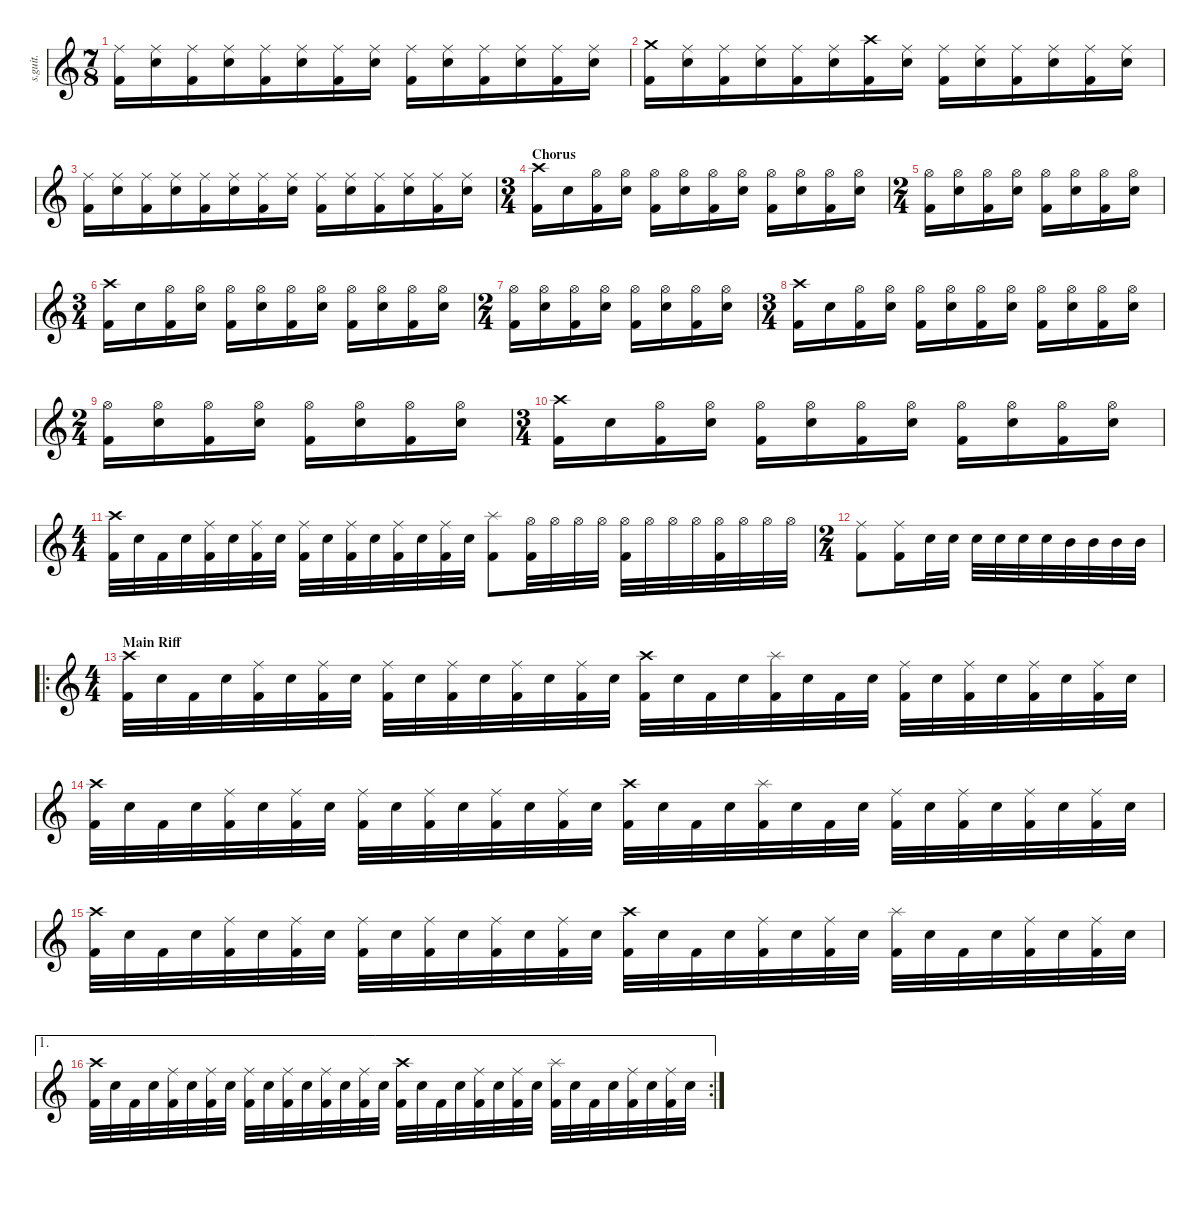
\defaultSystemsLayout 4
\hideDynamics
\bracketExtendMode nobrackets
\track ("Percussion" "s.guit.") {instrument percussion}
\staff {score}
\articulation defaults
\ts (7 8)
\tempo (120 hide)
\clef g2
\ks c
("Ride (middle)" "Kick (hit) 2").16{lyrics (0 "") lyrics (1 "") lyrics (2 "") lyrics (3 "") lyrics (4 "") dy f} ("Ride (middle)" "Snare (hit) 2").16{lyrics (0 "") lyrics (1 "") lyrics (2 "") lyrics (3 "") lyrics (4 "")} ("Ride (middle)" "Kick (hit) 2").16{lyrics (0 "") lyrics (1 "") lyrics (2 "") lyrics (3 "") lyrics (4 "")} ("Snare (hit) 2" "Ride (middle)").16{lyrics (0 "") lyrics (1 "") lyrics (2 "") lyrics (3 "") lyrics (4 "")} ("Ride (middle)" "Kick (hit) 2").16{lyrics (0 "") lyrics (1 "") lyrics (2 "") lyrics (3 "") lyrics (4 "")} ("Ride (middle)" "Snare (hit) 2").16{lyrics (0 "") lyrics (1 "") lyrics (2 "") lyrics (3 "") lyrics (4 "")} ("Ride (middle)" "Kick (hit) 2").16{lyrics (0 "") lyrics (1 "") lyrics (2 "") lyrics (3 "") lyrics (4 "")} ("Ride (middle)" "Snare (hit) 2").16{lyrics (0 "") lyrics (1 "") lyrics (2 "") lyrics (3 "") lyrics (4 "")} ("Ride (middle)" "Kick (hit) 2").16{lyrics (0 "") lyrics (1 "") lyrics (2 "") lyrics (3 "") lyrics (4 "")} ("Ride (middle)" "Snare (hit) 2").16{lyrics (0 "") lyrics (1 "") lyrics (2 "") lyrics (3 "") lyrics (4 "")} ("Ride (middle)" "Kick (hit) 2").16{lyrics (0 "") lyrics (1 "") lyrics (2 "") lyrics (3 "") lyrics (4 "")} ("Ride (middle)" "Snare (hit) 2").16{lyrics (0 "") lyrics (1 "") lyrics (2 "") lyrics (3 "") lyrics (4 "")} ("Ride (middle)" "Kick (hit) 2").16{lyrics (0 "") lyrics (1 "") lyrics (2 "") lyrics (3 "") lyrics (4 "")} ("Ride (middle)" "Snare (hit) 2").16{lyrics (0 "") lyrics (1 "") lyrics (2 "") lyrics (3 "") lyrics (4 "")} |
("Crash medium (hit)" "Kick (hit) 2").16{lyrics (0 "") lyrics (1 "") lyrics (2 "") lyrics (3 "") lyrics (4 "")} ("Ride (middle)" "Snare (hit) 2").16{lyrics (0 "") lyrics (1 "") lyrics (2 "") lyrics (3 "") lyrics (4 "")} ("Ride (middle)" "Kick (hit) 2").16{lyrics (0 "") lyrics (1 "") lyrics (2 "") lyrics (3 "") lyrics (4 "")} ("Snare (hit) 2" "Ride (middle)").16{lyrics (0 "") lyrics (1 "") lyrics (2 "") lyrics (3 "") lyrics (4 "")} ("Ride (middle)" "Kick (hit) 2").16{lyrics (0 "") lyrics (1 "") lyrics (2 "") lyrics (3 "") lyrics (4 "")} ("Ride (middle)" "Snare (hit) 2").16{lyrics (0 "") lyrics (1 "") lyrics (2 "") lyrics (3 "") lyrics (4 "")} ("Crash high (hit)" "Kick (hit) 2").16{lyrics (0 "") lyrics (1 "") lyrics (2 "") lyrics (3 "") lyrics (4 "")} ("Ride (middle)" "Snare (hit) 2").16{lyrics (0 "") lyrics (1 "") lyrics (2 "") lyrics (3 "") lyrics (4 "")} ("Ride (middle)" "Kick (hit) 2").16{lyrics (0 "") lyrics (1 "") lyrics (2 "") lyrics (3 "") lyrics (4 "")} ("Ride (middle)" "Snare (hit) 2").16{lyrics (0 "") lyrics (1 "") lyrics (2 "") lyrics (3 "") lyrics (4 "")} ("Ride (middle)" "Kick (hit) 2").16{lyrics (0 "") lyrics (1 "") lyrics (2 "") lyrics (3 "") lyrics (4 "")} ("Ride (middle)" "Snare (hit) 2").16{lyrics (0 "") lyrics (1 "") lyrics (2 "") lyrics (3 "") lyrics (4 "")} ("Ride (middle)" "Kick (hit) 2").16{lyrics (0 "") lyrics (1 "") lyrics (2 "") lyrics (3 "") lyrics (4 "")} ("Ride (middle)" "Snare (hit) 2").16{lyrics (0 "") lyrics (1 "") lyrics (2 "") lyrics (3 "") lyrics (4 "")} |
("Ride (middle)" "Kick (hit) 2").16{lyrics (0 "") lyrics (1 "") lyrics (2 "") lyrics (3 "") lyrics (4 "")} ("Ride (middle)" "Snare (hit) 2").16{lyrics (0 "") lyrics (1 "") lyrics (2 "") lyrics (3 "") lyrics (4 "")} ("Ride (middle)" "Kick (hit) 2").16{lyrics (0 "") lyrics (1 "") lyrics (2 "") lyrics (3 "") lyrics (4 "")} ("Snare (hit) 2" "Ride (middle)").16{lyrics (0 "") lyrics (1 "") lyrics (2 "") lyrics (3 "") lyrics (4 "")} ("Ride (middle)" "Kick (hit) 2").16{lyrics (0 "") lyrics (1 "") lyrics (2 "") lyrics (3 "") lyrics (4 "")} ("Ride (middle)" "Snare (hit) 2").16{lyrics (0 "") lyrics (1 "") lyrics (2 "") lyrics (3 "") lyrics (4 "")} ("Ride (middle)" "Kick (hit) 2").16{lyrics (0 "") lyrics (1 "") lyrics (2 "") lyrics (3 "") lyrics (4 "")} ("Ride (middle)" "Snare (hit) 2").16{lyrics (0 "") lyrics (1 "") lyrics (2 "") lyrics (3 "") lyrics (4 "")} ("Ride (middle)" "Kick (hit) 2").16{lyrics (0 "") lyrics (1 "") lyrics (2 "") lyrics (3 "") lyrics (4 "")} ("Ride (middle)" "Snare (hit) 2").16{lyrics (0 "") lyrics (1 "") lyrics (2 "") lyrics (3 "") lyrics (4 "")} ("Ride (middle)" "Kick (hit) 2").16{lyrics (0 "") lyrics (1 "") lyrics (2 "") lyrics (3 "") lyrics (4 "")} ("Ride (middle)" "Snare (hit) 2").16{lyrics (0 "") lyrics (1 "") lyrics (2 "") lyrics (3 "") lyrics (4 "")} ("Ride (middle)" "Kick (hit) 2").16{lyrics (0 "") lyrics (1 "") lyrics (2 "") lyrics (3 "") lyrics (4 "")} ("Ride (middle)" "Snare (hit) 2").16{lyrics (0 "") lyrics (1 "") lyrics (2 "") lyrics (3 "") lyrics (4 "")} |
\ts (3 4)
\beaming (8 2 2 2 2)
\section ("" "Chorus")
("Kick (hit) 2" "Crash high (hit)").16{lyrics (0 "") lyrics (1 "") lyrics (2 "") lyrics (3 "") lyrics (4 "")} "Snare (hit) 2".16{lyrics (0 "") lyrics (1 "") lyrics (2 "") lyrics (3 "") lyrics (4 "")} ("Hi-Hat (open)" "Kick (hit) 2").16{lyrics (0 "") lyrics (1 "") lyrics (2 "") lyrics (3 "") lyrics (4 "")} ("Hi-Hat (open)" "Snare (hit) 2").16{lyrics (0 "") lyrics (1 "") lyrics (2 "") lyrics (3 "") lyrics (4 "")} ("Hi-Hat (open)" "Kick (hit) 2").16{lyrics (0 "") lyrics (1 "") lyrics (2 "") lyrics (3 "") lyrics (4 "")} ("Hi-Hat (open)" "Snare (hit) 2").16{lyrics (0 "") lyrics (1 "") lyrics (2 "") lyrics (3 "") lyrics (4 "")} ("Hi-Hat (open)" "Kick (hit) 2").16{lyrics (0 "") lyrics (1 "") lyrics (2 "") lyrics (3 "") lyrics (4 "")} ("Hi-Hat (open)" "Snare (hit) 2").16{lyrics (0 "") lyrics (1 "") lyrics (2 "") lyrics (3 "") lyrics (4 "")} ("Hi-Hat (open)" "Kick (hit) 2").16{lyrics (0 "") lyrics (1 "") lyrics (2 "") lyrics (3 "") lyrics (4 "")} ("Hi-Hat (open)" "Snare (hit) 2").16{lyrics (0 "") lyrics (1 "") lyrics (2 "") lyrics (3 "") lyrics (4 "")} ("Hi-Hat (open)" "Kick (hit) 2").16{lyrics (0 "") lyrics (1 "") lyrics (2 "") lyrics (3 "") lyrics (4 "")} ("Hi-Hat (open)" "Snare (hit) 2").16{lyrics (0 "") lyrics (1 "") lyrics (2 "") lyrics (3 "") lyrics (4 "")} |
\ts (2 4)
\beaming (8 2 2 2 2)
("Hi-Hat (open)" "Kick (hit) 2").16{lyrics (0 "") lyrics (1 "") lyrics (2 "") lyrics (3 "") lyrics (4 "")} ("Hi-Hat (open)" "Snare (hit) 2").16{lyrics (0 "") lyrics (1 "") lyrics (2 "") lyrics (3 "") lyrics (4 "")} ("Hi-Hat (open)" "Kick (hit) 2").16{lyrics (0 "") lyrics (1 "") lyrics (2 "") lyrics (3 "") lyrics (4 "")} ("Hi-Hat (open)" "Snare (hit) 2").16{lyrics (0 "") lyrics (1 "") lyrics (2 "") lyrics (3 "") lyrics (4 "")} ("Hi-Hat (open)" "Kick (hit) 2").16{lyrics (0 "") lyrics (1 "") lyrics (2 "") lyrics (3 "") lyrics (4 "")} ("Hi-Hat (open)" "Snare (hit) 2").16{lyrics (0 "") lyrics (1 "") lyrics (2 "") lyrics (3 "") lyrics (4 "")} ("Hi-Hat (open)" "Kick (hit) 2").16{lyrics (0 "") lyrics (1 "") lyrics (2 "") lyrics (3 "") lyrics (4 "")} ("Hi-Hat (open)" "Snare (hit) 2").16{lyrics (0 "") lyrics (1 "") lyrics (2 "") lyrics (3 "") lyrics (4 "")} |
\ts (3 4)
\beaming (8 2 2 2 2)
("Kick (hit) 2" "Crash high (hit)").16{lyrics (0 "") lyrics (1 "") lyrics (2 "") lyrics (3 "") lyrics (4 "")} "Snare (hit) 2".16{lyrics (0 "") lyrics (1 "") lyrics (2 "") lyrics (3 "") lyrics (4 "")} ("Hi-Hat (open)" "Kick (hit) 2").16{lyrics (0 "") lyrics (1 "") lyrics (2 "") lyrics (3 "") lyrics (4 "")} ("Hi-Hat (open)" "Snare (hit) 2").16{lyrics (0 "") lyrics (1 "") lyrics (2 "") lyrics (3 "") lyrics (4 "")} ("Hi-Hat (open)" "Kick (hit) 2").16{lyrics (0 "") lyrics (1 "") lyrics (2 "") lyrics (3 "") lyrics (4 "")} ("Hi-Hat (open)" "Snare (hit) 2").16{lyrics (0 "") lyrics (1 "") lyrics (2 "") lyrics (3 "") lyrics (4 "")} ("Hi-Hat (open)" "Kick (hit) 2").16{lyrics (0 "") lyrics (1 "") lyrics (2 "") lyrics (3 "") lyrics (4 "")} ("Hi-Hat (open)" "Snare (hit) 2").16{lyrics (0 "") lyrics (1 "") lyrics (2 "") lyrics (3 "") lyrics (4 "")} ("Hi-Hat (open)" "Kick (hit) 2").16{lyrics (0 "") lyrics (1 "") lyrics (2 "") lyrics (3 "") lyrics (4 "")} ("Hi-Hat (open)" "Snare (hit) 2").16{lyrics (0 "") lyrics (1 "") lyrics (2 "") lyrics (3 "") lyrics (4 "")} ("Hi-Hat (open)" "Kick (hit) 2").16{lyrics (0 "") lyrics (1 "") lyrics (2 "") lyrics (3 "") lyrics (4 "")} ("Hi-Hat (open)" "Snare (hit) 2").16{lyrics (0 "") lyrics (1 "") lyrics (2 "") lyrics (3 "") lyrics (4 "")} |
\ts (2 4)
\beaming (8 2 2 2 2)
("Hi-Hat (open)" "Kick (hit) 2").16{lyrics (0 "") lyrics (1 "") lyrics (2 "") lyrics (3 "") lyrics (4 "")} ("Hi-Hat (open)" "Snare (hit) 2").16{lyrics (0 "") lyrics (1 "") lyrics (2 "") lyrics (3 "") lyrics (4 "")} ("Hi-Hat (open)" "Kick (hit) 2").16{lyrics (0 "") lyrics (1 "") lyrics (2 "") lyrics (3 "") lyrics (4 "")} ("Hi-Hat (open)" "Snare (hit) 2").16{lyrics (0 "") lyrics (1 "") lyrics (2 "") lyrics (3 "") lyrics (4 "")} ("Hi-Hat (open)" "Kick (hit) 2").16{lyrics (0 "") lyrics (1 "") lyrics (2 "") lyrics (3 "") lyrics (4 "")} ("Hi-Hat (open)" "Snare (hit) 2").16{lyrics (0 "") lyrics (1 "") lyrics (2 "") lyrics (3 "") lyrics (4 "")} ("Hi-Hat (open)" "Kick (hit) 2").16{lyrics (0 "") lyrics (1 "") lyrics (2 "") lyrics (3 "") lyrics (4 "")} ("Hi-Hat (open)" "Snare (hit) 2").16{lyrics (0 "") lyrics (1 "") lyrics (2 "") lyrics (3 "") lyrics (4 "")} |
\ts (3 4)
\beaming (8 2 2 2 2)
("Kick (hit) 2" "Crash high (hit)").16{lyrics (0 "") lyrics (1 "") lyrics (2 "") lyrics (3 "") lyrics (4 "")} "Snare (hit) 2".16{lyrics (0 "") lyrics (1 "") lyrics (2 "") lyrics (3 "") lyrics (4 "")} ("Hi-Hat (open)" "Kick (hit) 2").16{lyrics (0 "") lyrics (1 "") lyrics (2 "") lyrics (3 "") lyrics (4 "")} ("Hi-Hat (open)" "Snare (hit) 2").16{lyrics (0 "") lyrics (1 "") lyrics (2 "") lyrics (3 "") lyrics (4 "")} ("Hi-Hat (open)" "Kick (hit) 2").16{lyrics (0 "") lyrics (1 "") lyrics (2 "") lyrics (3 "") lyrics (4 "")} ("Hi-Hat (open)" "Snare (hit) 2").16{lyrics (0 "") lyrics (1 "") lyrics (2 "") lyrics (3 "") lyrics (4 "")} ("Hi-Hat (open)" "Kick (hit) 2").16{lyrics (0 "") lyrics (1 "") lyrics (2 "") lyrics (3 "") lyrics (4 "")} ("Hi-Hat (open)" "Snare (hit) 2").16{lyrics (0 "") lyrics (1 "") lyrics (2 "") lyrics (3 "") lyrics (4 "")} ("Hi-Hat (open)" "Kick (hit) 2").16{lyrics (0 "") lyrics (1 "") lyrics (2 "") lyrics (3 "") lyrics (4 "")} ("Hi-Hat (open)" "Snare (hit) 2").16{lyrics (0 "") lyrics (1 "") lyrics (2 "") lyrics (3 "") lyrics (4 "")} ("Hi-Hat (open)" "Kick (hit) 2").16{lyrics (0 "") lyrics (1 "") lyrics (2 "") lyrics (3 "") lyrics (4 "")} ("Hi-Hat (open)" "Snare (hit) 2").16{lyrics (0 "") lyrics (1 "") lyrics (2 "") lyrics (3 "") lyrics (4 "")} |
\ts (2 4)
\beaming (8 2 2 2 2)
("Hi-Hat (open)" "Kick (hit) 2").16{lyrics (0 "") lyrics (1 "") lyrics (2 "") lyrics (3 "") lyrics (4 "")} ("Hi-Hat (open)" "Snare (hit) 2").16{lyrics (0 "") lyrics (1 "") lyrics (2 "") lyrics (3 "") lyrics (4 "")} ("Hi-Hat (open)" "Kick (hit) 2").16{lyrics (0 "") lyrics (1 "") lyrics (2 "") lyrics (3 "") lyrics (4 "")} ("Hi-Hat (open)" "Snare (hit) 2").16{lyrics (0 "") lyrics (1 "") lyrics (2 "") lyrics (3 "") lyrics (4 "")} ("Hi-Hat (open)" "Kick (hit) 2").16{lyrics (0 "") lyrics (1 "") lyrics (2 "") lyrics (3 "") lyrics (4 "")} ("Hi-Hat (open)" "Snare (hit) 2").16{lyrics (0 "") lyrics (1 "") lyrics (2 "") lyrics (3 "") lyrics (4 "")} ("Hi-Hat (open)" "Kick (hit) 2").16{lyrics (0 "") lyrics (1 "") lyrics (2 "") lyrics (3 "") lyrics (4 "")} ("Hi-Hat (open)" "Snare (hit) 2").16{lyrics (0 "") lyrics (1 "") lyrics (2 "") lyrics (3 "") lyrics (4 "")} |
\ts (3 4)
\beaming (8 2 2 2 2)
("Kick (hit) 2" "Crash high (hit)").16{lyrics (0 "") lyrics (1 "") lyrics (2 "") lyrics (3 "") lyrics (4 "")} "Snare (hit) 2".16{lyrics (0 "") lyrics (1 "") lyrics (2 "") lyrics (3 "") lyrics (4 "")} ("Hi-Hat (open)" "Kick (hit) 2").16{lyrics (0 "") lyrics (1 "") lyrics (2 "") lyrics (3 "") lyrics (4 "")} ("Hi-Hat (open)" "Snare (hit) 2").16{lyrics (0 "") lyrics (1 "") lyrics (2 "") lyrics (3 "") lyrics (4 "")} ("Hi-Hat (open)" "Kick (hit) 2").16{lyrics (0 "") lyrics (1 "") lyrics (2 "") lyrics (3 "") lyrics (4 "")} ("Hi-Hat (open)" "Snare (hit) 2").16{lyrics (0 "") lyrics (1 "") lyrics (2 "") lyrics (3 "") lyrics (4 "")} ("Hi-Hat (open)" "Kick (hit) 2").16{lyrics (0 "") lyrics (1 "") lyrics (2 "") lyrics (3 "") lyrics (4 "")} ("Hi-Hat (open)" "Snare (hit) 2").16{lyrics (0 "") lyrics (1 "") lyrics (2 "") lyrics (3 "") lyrics (4 "")} ("Hi-Hat (open)" "Kick (hit) 2").16{lyrics (0 "") lyrics (1 "") lyrics (2 "") lyrics (3 "") lyrics (4 "")} ("Hi-Hat (open)" "Snare (hit) 2").16{lyrics (0 "") lyrics (1 "") lyrics (2 "") lyrics (3 "") lyrics (4 "")} ("Hi-Hat (open)" "Kick (hit) 2").16{lyrics (0 "") lyrics (1 "") lyrics (2 "") lyrics (3 "") lyrics (4 "")} ("Hi-Hat (open)" "Snare (hit) 2").16{lyrics (0 "") lyrics (1 "") lyrics (2 "") lyrics (3 "") lyrics (4 "")} |
\ts (4 4)
\beaming (8 2 2 2 2)
("Kick (hit) 2" "Crash high (hit)").32{lyrics (0 "") lyrics (1 "") lyrics (2 "") lyrics (3 "") lyrics (4 "")} "Snare (hit) 2".32{lyrics (0 "") lyrics (1 "") lyrics (2 "") lyrics (3 "") lyrics (4 "")} "Kick (hit) 2".32{lyrics (0 "") lyrics (1 "") lyrics (2 "") lyrics (3 "") lyrics (4 "")} "Snare (hit) 2".32{lyrics (0 "") lyrics (1 "") lyrics (2 "") lyrics (3 "") lyrics (4 "")} ("Ride (middle)" "Kick (hit) 2").32{lyrics (0 "") lyrics (1 "") lyrics (2 "") lyrics (3 "") lyrics (4 "")} "Snare (hit) 2".32{lyrics (0 "") lyrics (1 "") lyrics (2 "") lyrics (3 "") lyrics (4 "")} ("Ride (middle)" "Kick (hit) 2").32{lyrics (0 "") lyrics (1 "") lyrics (2 "") lyrics (3 "") lyrics (4 "")} "Snare (hit) 2".32{lyrics (0 "") lyrics (1 "") lyrics (2 "") lyrics (3 "") lyrics (4 "")} ("Ride (middle)" "Kick (hit) 2").32{lyrics (0 "") lyrics (1 "") lyrics (2 "") lyrics (3 "") lyrics (4 "")} "Snare (hit) 2".32{lyrics (0 "") lyrics (1 "") lyrics (2 "") lyrics (3 "") lyrics (4 "")} ("Ride (middle)" "Kick (hit) 2").32{lyrics (0 "") lyrics (1 "") lyrics (2 "") lyrics (3 "") lyrics (4 "")} "Snare (hit) 2".32{lyrics (0 "") lyrics (1 "") lyrics (2 "") lyrics (3 "") lyrics (4 "")} ("Ride (middle)" "Kick (hit) 2").32{lyrics (0 "") lyrics (1 "") lyrics (2 "") lyrics (3 "") lyrics (4 "")} "Snare (hit) 2".32{lyrics (0 "") lyrics (1 "") lyrics (2 "") lyrics (3 "") lyrics (4 "")} ("Ride (middle)" "Kick (hit) 2").32{lyrics (0 "") lyrics (1 "") lyrics (2 "") lyrics (3 "") lyrics (4 "")} "Snare (hit) 2".32{lyrics (0 "") lyrics (1 "") lyrics (2 "") lyrics (3 "") lyrics (4 "")} ("Splash (hit)" "Kick (hit) 2").8{lyrics (0 "") lyrics (1 "") lyrics (2 "") lyrics (3 "") lyrics (4 "")} ("Hi-Hat (open)" "Kick (hit) 2").32{lyrics (0 "") lyrics (1 "") lyrics (2 "") lyrics (3 "") lyrics (4 "")} "Hi-Hat (open)".32{lyrics (0 "") lyrics (1 "") lyrics (2 "") lyrics (3 "") lyrics (4 "")} "Hi-Hat (open)".32{lyrics (0 "") lyrics (1 "") lyrics (2 "") lyrics (3 "") lyrics (4 "")} "Hi-Hat (open)".32{lyrics (0 "") lyrics (1 "") lyrics (2 "") lyrics (3 "") lyrics (4 "")} ("Hi-Hat (open)" "Kick (hit) 2").32{lyrics (0 "") lyrics (1 "") lyrics (2 "") lyrics (3 "") lyrics (4 "")} "Hi-Hat (open)".32{lyrics (0 "") lyrics (1 "") lyrics (2 "") lyrics (3 "") lyrics (4 "")} "Hi-Hat (open)".32{lyrics (0 "") lyrics (1 "") lyrics (2 "") lyrics (3 "") lyrics (4 "")} "Hi-Hat (open)".32{lyrics (0 "") lyrics (1 "") lyrics (2 "") lyrics (3 "") lyrics (4 "")} ("Hi-Hat (open)" "Kick (hit) 2").32{lyrics (0 "") lyrics (1 "") lyrics (2 "") lyrics (3 "") lyrics (4 "")} "Hi-Hat (open)".32{lyrics (0 "") lyrics (1 "") lyrics (2 "") lyrics (3 "") lyrics (4 "")} "Hi-Hat (open)".32{lyrics (0 "") lyrics (1 "") lyrics (2 "") lyrics (3 "") lyrics (4 "")} "Hi-Hat (open)".32{lyrics (0 "") lyrics (1 "") lyrics (2 "") lyrics (3 "") lyrics (4 "")} |
\ts (2 4)
\beaming (8 2 2 2 2)
("Ride (middle)" "Kick (hit) 2").8{lyrics (0 "") lyrics (1 "") lyrics (2 "") lyrics (3 "") lyrics (4 "")} ("Ride (middle)" "Kick (hit) 2").16{lyrics (0 "") lyrics (1 "") lyrics (2 "") lyrics (3 "") lyrics (4 "")} "Snare (hit) 2".32{lyrics (0 "") lyrics (1 "") lyrics (2 "") lyrics (3 "") lyrics (4 "")} "Snare (hit) 2".32{lyrics (0 "") lyrics (1 "") lyrics (2 "") lyrics (3 "") lyrics (4 "")} "Snare (hit) 2".32{lyrics (0 "") lyrics (1 "") lyrics (2 "") lyrics (3 "") lyrics (4 "")} "Snare (hit) 2".32{lyrics (0 "") lyrics (1 "") lyrics (2 "") lyrics (3 "") lyrics (4 "")} "Snare (hit) 2".32{lyrics (0 "") lyrics (1 "") lyrics (2 "") lyrics (3 "") lyrics (4 "")} "Snare (hit) 2".32{lyrics (0 "") lyrics (1 "") lyrics (2 "") lyrics (3 "") lyrics (4 "")} "Mid Tom (hit)".32{lyrics (0 "") lyrics (1 "") lyrics (2 "") lyrics (3 "") lyrics (4 "")} "Mid Tom (hit)".32{lyrics (0 "") lyrics (1 "") lyrics (2 "") lyrics (3 "") lyrics (4 "")} "Mid Tom (hit)".32{lyrics (0 "") lyrics (1 "") lyrics (2 "") lyrics (3 "") lyrics (4 "")} "Mid Tom (hit)".32{lyrics (0 "") lyrics (1 "") lyrics (2 "") lyrics (3 "") lyrics (4 "")} |
\ro
\ts (4 4)
\beaming (8 2 2 2 2)
\section ("" "Main Riff")
("Kick (hit) 2" "Crash high (hit)").32{lyrics (0 "") lyrics (1 "") lyrics (2 "") lyrics (3 "") lyrics (4 "")} "Snare (hit) 2".32{lyrics (0 "") lyrics (1 "") lyrics (2 "") lyrics (3 "") lyrics (4 "")} "Kick (hit) 2".32{lyrics (0 "") lyrics (1 "") lyrics (2 "") lyrics (3 "") lyrics (4 "")} "Snare (hit) 2".32{lyrics (0 "") lyrics (1 "") lyrics (2 "") lyrics (3 "") lyrics (4 "")} ("Ride (middle)" "Kick (hit) 2").32{lyrics (0 "") lyrics (1 "") lyrics (2 "") lyrics (3 "") lyrics (4 "")} "Snare (hit) 2".32{lyrics (0 "") lyrics (1 "") lyrics (2 "") lyrics (3 "") lyrics (4 "")} ("Ride (middle)" "Kick (hit) 2").32{lyrics (0 "") lyrics (1 "") lyrics (2 "") lyrics (3 "") lyrics (4 "")} "Snare (hit) 2".32{lyrics (0 "") lyrics (1 "") lyrics (2 "") lyrics (3 "") lyrics (4 "")} ("Ride (middle)" "Kick (hit) 2").32{lyrics (0 "") lyrics (1 "") lyrics (2 "") lyrics (3 "") lyrics (4 "")} "Snare (hit) 2".32{lyrics (0 "") lyrics (1 "") lyrics (2 "") lyrics (3 "") lyrics (4 "")} ("Ride (middle)" "Kick (hit) 2").32{lyrics (0 "") lyrics (1 "") lyrics (2 "") lyrics (3 "") lyrics (4 "")} "Snare (hit) 2".32{lyrics (0 "") lyrics (1 "") lyrics (2 "") lyrics (3 "") lyrics (4 "")} ("Ride (middle)" "Kick (hit) 2").32{lyrics (0 "") lyrics (1 "") lyrics (2 "") lyrics (3 "") lyrics (4 "")} "Snare (hit) 2".32{lyrics (0 "") lyrics (1 "") lyrics (2 "") lyrics (3 "") lyrics (4 "")} ("Ride (middle)" "Kick (hit) 2").32{lyrics (0 "") lyrics (1 "") lyrics (2 "") lyrics (3 "") lyrics (4 "")} "Snare (hit) 2".32{lyrics (0 "") lyrics (1 "") lyrics (2 "") lyrics (3 "") lyrics (4 "")} ("Kick (hit) 2" "Crash high (hit)").32{lyrics (0 "") lyrics (1 "") lyrics (2 "") lyrics (3 "") lyrics (4 "")} "Snare (hit) 2".32{lyrics (0 "") lyrics (1 "") lyrics (2 "") lyrics (3 "") lyrics (4 "")} "Kick (hit) 2".32{lyrics (0 "") lyrics (1 "") lyrics (2 "") lyrics (3 "") lyrics (4 "")} "Snare (hit) 2".32{lyrics (0 "") lyrics (1 "") lyrics (2 "") lyrics (3 "") lyrics (4 "")} ("Kick (hit) 2" "Splash (hit)").32{lyrics (0 "") lyrics (1 "") lyrics (2 "") lyrics (3 "") lyrics (4 "")} "Snare (hit) 2".32{lyrics (0 "") lyrics (1 "") lyrics (2 "") lyrics (3 "") lyrics (4 "")} "Kick (hit) 2".32{lyrics (0 "") lyrics (1 "") lyrics (2 "") lyrics (3 "") lyrics (4 "")} "Snare (hit) 2".32{lyrics (0 "") lyrics (1 "") lyrics (2 "") lyrics (3 "") lyrics (4 "")} ("Ride (middle)" "Kick (hit) 2").32{lyrics (0 "") lyrics (1 "") lyrics (2 "") lyrics (3 "") lyrics (4 "")} "Snare (hit) 2".32{lyrics (0 "") lyrics (1 "") lyrics (2 "") lyrics (3 "") lyrics (4 "")} ("Ride (middle)" "Kick (hit) 2").32{lyrics (0 "") lyrics (1 "") lyrics (2 "") lyrics (3 "") lyrics (4 "")} "Snare (hit) 2".32{lyrics (0 "") lyrics (1 "") lyrics (2 "") lyrics (3 "") lyrics (4 "")} ("Ride (middle)" "Kick (hit) 2").32{lyrics (0 "") lyrics (1 "") lyrics (2 "") lyrics (3 "") lyrics (4 "")} "Snare (hit) 2".32{lyrics (0 "") lyrics (1 "") lyrics (2 "") lyrics (3 "") lyrics (4 "")} ("Ride (middle)" "Kick (hit) 2").32{lyrics (0 "") lyrics (1 "") lyrics (2 "") lyrics (3 "") lyrics (4 "")} "Snare (hit) 2".32{lyrics (0 "") lyrics (1 "") lyrics (2 "") lyrics (3 "") lyrics (4 "")} |
("Kick (hit) 2" "Crash high (hit)").32{lyrics (0 "") lyrics (1 "") lyrics (2 "") lyrics (3 "") lyrics (4 "")} "Snare (hit) 2".32{lyrics (0 "") lyrics (1 "") lyrics (2 "") lyrics (3 "") lyrics (4 "")} "Kick (hit) 2".32{lyrics (0 "") lyrics (1 "") lyrics (2 "") lyrics (3 "") lyrics (4 "")} "Snare (hit) 2".32{lyrics (0 "") lyrics (1 "") lyrics (2 "") lyrics (3 "") lyrics (4 "")} ("Ride (middle)" "Kick (hit) 2").32{lyrics (0 "") lyrics (1 "") lyrics (2 "") lyrics (3 "") lyrics (4 "")} "Snare (hit) 2".32{lyrics (0 "") lyrics (1 "") lyrics (2 "") lyrics (3 "") lyrics (4 "")} ("Ride (middle)" "Kick (hit) 2").32{lyrics (0 "") lyrics (1 "") lyrics (2 "") lyrics (3 "") lyrics (4 "")} "Snare (hit) 2".32{lyrics (0 "") lyrics (1 "") lyrics (2 "") lyrics (3 "") lyrics (4 "")} ("Ride (middle)" "Kick (hit) 2").32{lyrics (0 "") lyrics (1 "") lyrics (2 "") lyrics (3 "") lyrics (4 "")} "Snare (hit) 2".32{lyrics (0 "") lyrics (1 "") lyrics (2 "") lyrics (3 "") lyrics (4 "")} ("Ride (middle)" "Kick (hit) 2").32{lyrics (0 "") lyrics (1 "") lyrics (2 "") lyrics (3 "") lyrics (4 "")} "Snare (hit) 2".32{lyrics (0 "") lyrics (1 "") lyrics (2 "") lyrics (3 "") lyrics (4 "")} ("Ride (middle)" "Kick (hit) 2").32{lyrics (0 "") lyrics (1 "") lyrics (2 "") lyrics (3 "") lyrics (4 "")} "Snare (hit) 2".32{lyrics (0 "") lyrics (1 "") lyrics (2 "") lyrics (3 "") lyrics (4 "")} ("Ride (middle)" "Kick (hit) 2").32{lyrics (0 "") lyrics (1 "") lyrics (2 "") lyrics (3 "") lyrics (4 "")} "Snare (hit) 2".32{lyrics (0 "") lyrics (1 "") lyrics (2 "") lyrics (3 "") lyrics (4 "")} ("Kick (hit) 2" "Crash high (hit)").32{lyrics (0 "") lyrics (1 "") lyrics (2 "") lyrics (3 "") lyrics (4 "")} "Snare (hit) 2".32{lyrics (0 "") lyrics (1 "") lyrics (2 "") lyrics (3 "") lyrics (4 "")} "Kick (hit) 2".32{lyrics (0 "") lyrics (1 "") lyrics (2 "") lyrics (3 "") lyrics (4 "")} "Snare (hit) 2".32{lyrics (0 "") lyrics (1 "") lyrics (2 "") lyrics (3 "") lyrics (4 "")} ("Kick (hit) 2" "Splash (hit)").32{lyrics (0 "") lyrics (1 "") lyrics (2 "") lyrics (3 "") lyrics (4 "")} "Snare (hit) 2".32{lyrics (0 "") lyrics (1 "") lyrics (2 "") lyrics (3 "") lyrics (4 "")} "Kick (hit) 2".32{lyrics (0 "") lyrics (1 "") lyrics (2 "") lyrics (3 "") lyrics (4 "")} "Snare (hit) 2".32{lyrics (0 "") lyrics (1 "") lyrics (2 "") lyrics (3 "") lyrics (4 "")} ("Ride (middle)" "Kick (hit) 2").32{lyrics (0 "") lyrics (1 "") lyrics (2 "") lyrics (3 "") lyrics (4 "")} "Snare (hit) 2".32{lyrics (0 "") lyrics (1 "") lyrics (2 "") lyrics (3 "") lyrics (4 "")} ("Ride (middle)" "Kick (hit) 2").32{lyrics (0 "") lyrics (1 "") lyrics (2 "") lyrics (3 "") lyrics (4 "")} "Snare (hit) 2".32{lyrics (0 "") lyrics (1 "") lyrics (2 "") lyrics (3 "") lyrics (4 "")} ("Ride (middle)" "Kick (hit) 2").32{lyrics (0 "") lyrics (1 "") lyrics (2 "") lyrics (3 "") lyrics (4 "")} "Snare (hit) 2".32{lyrics (0 "") lyrics (1 "") lyrics (2 "") lyrics (3 "") lyrics (4 "")} ("Ride (middle)" "Kick (hit) 2").32{lyrics (0 "") lyrics (1 "") lyrics (2 "") lyrics (3 "") lyrics (4 "")} "Snare (hit) 2".32{lyrics (0 "") lyrics (1 "") lyrics (2 "") lyrics (3 "") lyrics (4 "")} |
("Kick (hit) 2" "Crash high (hit)").32{lyrics (0 "") lyrics (1 "") lyrics (2 "") lyrics (3 "") lyrics (4 "")} "Snare (hit) 2".32{lyrics (0 "") lyrics (1 "") lyrics (2 "") lyrics (3 "") lyrics (4 "")} "Kick (hit) 2".32{lyrics (0 "") lyrics (1 "") lyrics (2 "") lyrics (3 "") lyrics (4 "")} "Snare (hit) 2".32{lyrics (0 "") lyrics (1 "") lyrics (2 "") lyrics (3 "") lyrics (4 "")} ("Ride (middle)" "Kick (hit) 2").32{lyrics (0 "") lyrics (1 "") lyrics (2 "") lyrics (3 "") lyrics (4 "")} "Snare (hit) 2".32{lyrics (0 "") lyrics (1 "") lyrics (2 "") lyrics (3 "") lyrics (4 "")} ("Ride (middle)" "Kick (hit) 2").32{lyrics (0 "") lyrics (1 "") lyrics (2 "") lyrics (3 "") lyrics (4 "")} "Snare (hit) 2".32{lyrics (0 "") lyrics (1 "") lyrics (2 "") lyrics (3 "") lyrics (4 "")} ("Ride (middle)" "Kick (hit) 2").32{lyrics (0 "") lyrics (1 "") lyrics (2 "") lyrics (3 "") lyrics (4 "")} "Snare (hit) 2".32{lyrics (0 "") lyrics (1 "") lyrics (2 "") lyrics (3 "") lyrics (4 "")} ("Ride (middle)" "Kick (hit) 2").32{lyrics (0 "") lyrics (1 "") lyrics (2 "") lyrics (3 "") lyrics (4 "")} "Snare (hit) 2".32{lyrics (0 "") lyrics (1 "") lyrics (2 "") lyrics (3 "") lyrics (4 "")} ("Ride (middle)" "Kick (hit) 2").32{lyrics (0 "") lyrics (1 "") lyrics (2 "") lyrics (3 "") lyrics (4 "")} "Snare (hit) 2".32{lyrics (0 "") lyrics (1 "") lyrics (2 "") lyrics (3 "") lyrics (4 "")} ("Ride (middle)" "Kick (hit) 2").32{lyrics (0 "") lyrics (1 "") lyrics (2 "") lyrics (3 "") lyrics (4 "")} "Snare (hit) 2".32{lyrics (0 "") lyrics (1 "") lyrics (2 "") lyrics (3 "") lyrics (4 "")} ("Kick (hit) 2" "Crash high (hit)").32{lyrics (0 "") lyrics (1 "") lyrics (2 "") lyrics (3 "") lyrics (4 "")} "Snare (hit) 2".32{lyrics (0 "") lyrics (1 "") lyrics (2 "") lyrics (3 "") lyrics (4 "")} "Kick (hit) 2".32{lyrics (0 "") lyrics (1 "") lyrics (2 "") lyrics (3 "") lyrics (4 "")} "Snare (hit) 2".32{lyrics (0 "") lyrics (1 "") lyrics (2 "") lyrics (3 "") lyrics (4 "")} ("Ride (middle)" "Kick (hit) 2").32{lyrics (0 "") lyrics (1 "") lyrics (2 "") lyrics (3 "") lyrics (4 "")} "Snare (hit) 2".32{lyrics (0 "") lyrics (1 "") lyrics (2 "") lyrics (3 "") lyrics (4 "")} ("Ride (middle)" "Kick (hit) 2").32{lyrics (0 "") lyrics (1 "") lyrics (2 "") lyrics (3 "") lyrics (4 "")} "Snare (hit) 2".32{lyrics (0 "") lyrics (1 "") lyrics (2 "") lyrics (3 "") lyrics (4 "")} ("Splash (hit)" "Kick (hit) 2").32{lyrics (0 "") lyrics (1 "") lyrics (2 "") lyrics (3 "") lyrics (4 "")} "Snare (hit) 2".32{lyrics (0 "") lyrics (1 "") lyrics (2 "") lyrics (3 "") lyrics (4 "")} "Kick (hit) 2".32{lyrics (0 "") lyrics (1 "") lyrics (2 "") lyrics (3 "") lyrics (4 "")} "Snare (hit) 2".32{lyrics (0 "") lyrics (1 "") lyrics (2 "") lyrics (3 "") lyrics (4 "")} ("Ride (middle)" "Kick (hit) 2").32{lyrics (0 "") lyrics (1 "") lyrics (2 "") lyrics (3 "") lyrics (4 "")} "Snare (hit) 2".32{lyrics (0 "") lyrics (1 "") lyrics (2 "") lyrics (3 "") lyrics (4 "")} ("Ride (middle)" "Kick (hit) 2").32{lyrics (0 "") lyrics (1 "") lyrics (2 "") lyrics (3 "") lyrics (4 "")} "Snare (hit) 2".32{lyrics (0 "") lyrics (1 "") lyrics (2 "") lyrics (3 "") lyrics (4 "")} |
\ae 1
\rc 2
("Kick (hit) 2" "Crash high (hit)").32{lyrics (0 "") lyrics (1 "") lyrics (2 "") lyrics (3 "") lyrics (4 "")} "Snare (hit) 2".32{lyrics (0 "") lyrics (1 "") lyrics (2 "") lyrics (3 "") lyrics (4 "")} "Kick (hit) 2".32{lyrics (0 "") lyrics (1 "") lyrics (2 "") lyrics (3 "") lyrics (4 "")} "Snare (hit) 2".32{lyrics (0 "") lyrics (1 "") lyrics (2 "") lyrics (3 "") lyrics (4 "")} ("Ride (middle)" "Kick (hit) 2").32{lyrics (0 "") lyrics (1 "") lyrics (2 "") lyrics (3 "") lyrics (4 "")} "Snare (hit) 2".32{lyrics (0 "") lyrics (1 "") lyrics (2 "") lyrics (3 "") lyrics (4 "")} ("Ride (middle)" "Kick (hit) 2").32{lyrics (0 "") lyrics (1 "") lyrics (2 "") lyrics (3 "") lyrics (4 "")} "Snare (hit) 2".32{lyrics (0 "") lyrics (1 "") lyrics (2 "") lyrics (3 "") lyrics (4 "")} ("Ride (middle)" "Kick (hit) 2").32{lyrics (0 "") lyrics (1 "") lyrics (2 "") lyrics (3 "") lyrics (4 "")} "Snare (hit) 2".32{lyrics (0 "") lyrics (1 "") lyrics (2 "") lyrics (3 "") lyrics (4 "")} ("Ride (middle)" "Kick (hit) 2").32{lyrics (0 "") lyrics (1 "") lyrics (2 "") lyrics (3 "") lyrics (4 "")} "Snare (hit) 2".32{lyrics (0 "") lyrics (1 "") lyrics (2 "") lyrics (3 "") lyrics (4 "")} ("Ride (middle)" "Kick (hit) 2").32{lyrics (0 "") lyrics (1 "") lyrics (2 "") lyrics (3 "") lyrics (4 "")} "Snare (hit) 2".32{lyrics (0 "") lyrics (1 "") lyrics (2 "") lyrics (3 "") lyrics (4 "")} ("Ride (middle)" "Kick (hit) 2").32{lyrics (0 "") lyrics (1 "") lyrics (2 "") lyrics (3 "") lyrics (4 "")} "Snare (hit) 2".32{lyrics (0 "") lyrics (1 "") lyrics (2 "") lyrics (3 "") lyrics (4 "")} ("Kick (hit) 2" "Crash high (hit)").32{lyrics (0 "") lyrics (1 "") lyrics (2 "") lyrics (3 "") lyrics (4 "")} "Snare (hit) 2".32{lyrics (0 "") lyrics (1 "") lyrics (2 "") lyrics (3 "") lyrics (4 "")} "Kick (hit) 2".32{lyrics (0 "") lyrics (1 "") lyrics (2 "") lyrics (3 "") lyrics (4 "")} "Snare (hit) 2".32{lyrics (0 "") lyrics (1 "") lyrics (2 "") lyrics (3 "") lyrics (4 "")} ("Ride (middle)" "Kick (hit) 2").32{lyrics (0 "") lyrics (1 "") lyrics (2 "") lyrics (3 "") lyrics (4 "")} "Snare (hit) 2".32{lyrics (0 "") lyrics (1 "") lyrics (2 "") lyrics (3 "") lyrics (4 "")} ("Ride (middle)" "Kick (hit) 2").32{lyrics (0 "") lyrics (1 "") lyrics (2 "") lyrics (3 "") lyrics (4 "")} "Snare (hit) 2".32{lyrics (0 "") lyrics (1 "") lyrics (2 "") lyrics (3 "") lyrics (4 "")} ("Splash (hit)" "Kick (hit) 2").32{lyrics (0 "") lyrics (1 "") lyrics (2 "") lyrics (3 "") lyrics (4 "")} "Snare (hit) 2".32{lyrics (0 "") lyrics (1 "") lyrics (2 "") lyrics (3 "") lyrics (4 "")} "Kick (hit) 2".32{lyrics (0 "") lyrics (1 "") lyrics (2 "") lyrics (3 "") lyrics (4 "")} "Snare (hit) 2".32{lyrics (0 "") lyrics (1 "") lyrics (2 "") lyrics (3 "") lyrics (4 "")} ("Ride (middle)" "Kick (hit) 2").32{lyrics (0 "") lyrics (1 "") lyrics (2 "") lyrics (3 "") lyrics (4 "")} "Snare (hit) 2".32{lyrics (0 "") lyrics (1 "") lyrics (2 "") lyrics (3 "") lyrics (4 "")} ("Ride (middle)" "Kick (hit) 2").32{lyrics (0 "") lyrics (1 "") lyrics (2 "") lyrics (3 "") lyrics (4 "")} "Snare (hit) 2".32{lyrics (0 "") lyrics (1 "") lyrics (2 "") lyrics (3 "") lyrics (4 "")}
